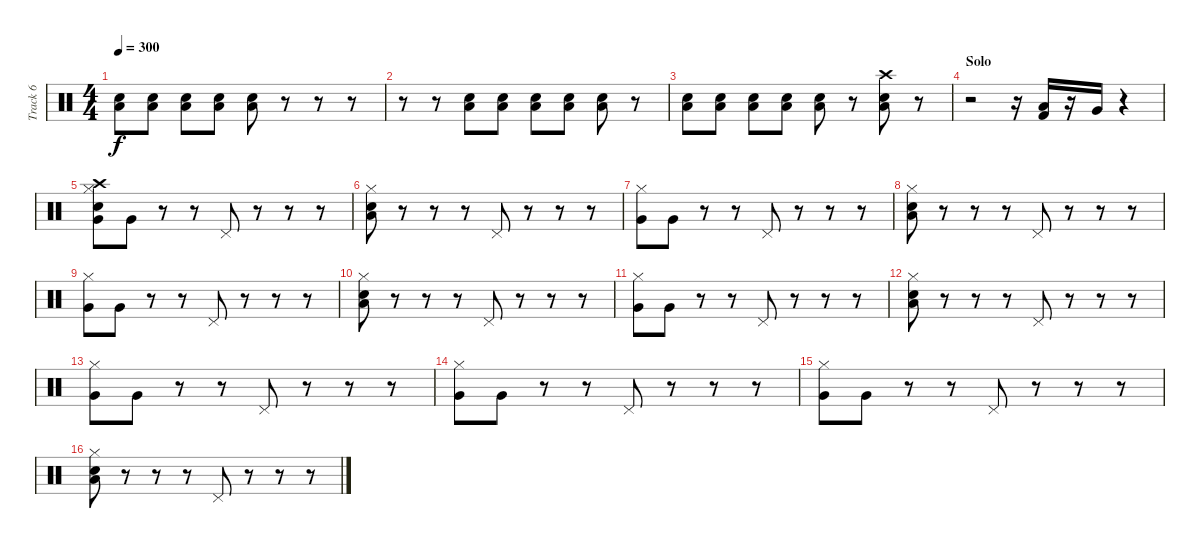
\track ("Track 6" "Track 6") {instrument percussion}
\staff {score}
\articulation defaults
\ts (4 4)
\tempo 300
\clef neutral
\ks c
("Low Floor Tom (hit)" "Electric Snare (hit)").8{dy f} ("Low Floor Tom (hit)" "Electric Snare (hit)").8 ("Low Floor Tom (hit)" "Electric Snare (hit)").8 ("Low Floor Tom (hit)" "Electric Snare (hit)").8 ("Low Floor Tom (hit)" "Electric Snare (hit)").8 r.8 r.8 r.8 |
r.8 r.8 ("Low Floor Tom (hit)" "Electric Snare (hit)").8 ("Low Floor Tom (hit)" "Electric Snare (hit)").8 ("Low Floor Tom (hit)" "Electric Snare (hit)").8 ("Low Floor Tom (hit)" "Electric Snare (hit)").8 ("Low Floor Tom (hit)" "Electric Snare (hit)").8 r.8 |
("Low Floor Tom (hit)" "Electric Snare (hit)").8 ("Low Floor Tom (hit)" "Electric Snare (hit)").8 ("Low Floor Tom (hit)" "Electric Snare (hit)").8 ("Low Floor Tom (hit)" "Electric Snare (hit)").8 ("Low Floor Tom (hit)" "Electric Snare (hit)").8 r.8 ("Low Tom (hit)" "Snare (hit) 2" "Crash high (hit)").8 r.8 |
\section ("" "Solo")
r.2 r.16 ("Low Tom (hit)" "Kick (hit) 2").16 r.16 "Very Low Tom (hit)".16 r.4 |
("Very Low Tom (hit)" "Hi-Hat (closed)" "Snare (hit) 2" "Crash high (hit)").8 "Very Low Tom (hit)".8 r.8 r.8 "Pedal Hi-Hat (hit)".8 r.8 r.8 r.8 |
("Low Floor Tom (hit)" "Electric Snare (hit)" "Hi-Hat (closed)").8 r.8 r.8 r.8 "Pedal Hi-Hat (hit)".8 r.8 r.8 r.8 |
("Very Low Tom (hit)" "Hi-Hat (closed)").8 "Very Low Tom (hit)".8 r.8 r.8 "Pedal Hi-Hat (hit)".8 r.8 r.8 r.8 |
("Low Floor Tom (hit)" "Electric Snare (hit)" "Hi-Hat (closed)").8 r.8 r.8 r.8 "Pedal Hi-Hat (hit)".8 r.8 r.8 r.8 |
("Very Low Tom (hit)" "Hi-Hat (closed)").8 "Very Low Tom (hit)".8 r.8 r.8 "Pedal Hi-Hat (hit)".8 r.8 r.8 r.8 |
("Low Floor Tom (hit)" "Electric Snare (hit)" "Hi-Hat (closed)").8 r.8 r.8 r.8 "Pedal Hi-Hat (hit)".8 r.8 r.8 r.8 |
("Very Low Tom (hit)" "Hi-Hat (closed)").8 "Very Low Tom (hit)".8 r.8 r.8 "Pedal Hi-Hat (hit)".8 r.8 r.8 r.8 |
("Low Floor Tom (hit)" "Electric Snare (hit)" "Hi-Hat (closed)").8 r.8 r.8 r.8 "Pedal Hi-Hat (hit)".8 r.8 r.8 r.8 |
("Very Low Tom (hit)" "Hi-Hat (closed)").8 "Very Low Tom (hit)".8 r.8 r.8 "Pedal Hi-Hat (hit)".8 r.8 r.8 r.8 |
("Very Low Tom (hit)" "Hi-Hat (closed)").8 "Very Low Tom (hit)".8 r.8 r.8 "Pedal Hi-Hat (hit)".8 r.8 r.8 r.8 |
("Very Low Tom (hit)" "Hi-Hat (closed)").8 "Very Low Tom (hit)".8 r.8 r.8 "Pedal Hi-Hat (hit)".8 r.8 r.8 r.8 |
("Low Floor Tom (hit)" "Electric Snare (hit)" "Hi-Hat (closed)").8 r.8 r.8 r.8 "Pedal Hi-Hat (hit)".8 r.8 r.8 r.8
